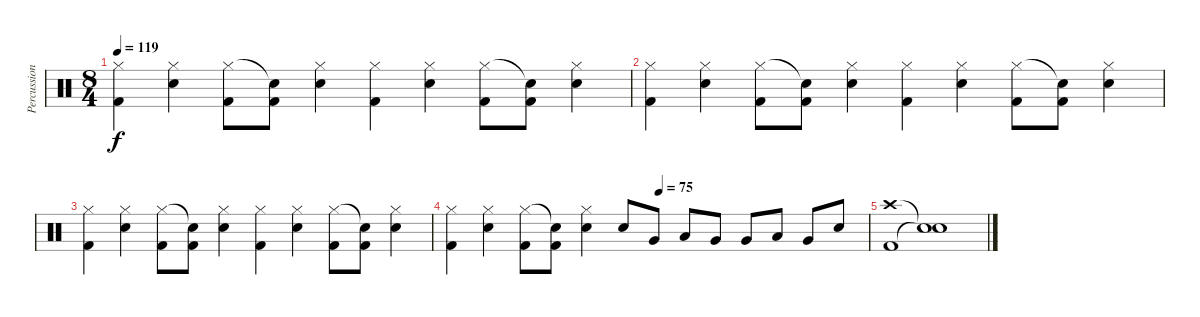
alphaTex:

\track ("Percussion" "Percussion") {instrument percussion}
\staff {score}
\articulation defaults
\ts (8 4)
\tempo 119
\clef neutral
\ks c
("Hi-Hat (closed)" "Kick (hit) 2").4{dy f} ("Hi-Hat (closed)" "Snare (hit) 2").4 ("Hi-Hat (closed)" "Kick (hit) 2").8 ("Snare (hit)"{t} "Kick (hit) 2").8 ("Hi-Hat (closed)" "Snare (hit) 2").4 ("Hi-Hat (closed)" "Kick (hit) 2").4 ("Hi-Hat (closed)" "Snare (hit) 2").4 ("Hi-Hat (closed)" "Kick (hit) 2").8 ("Snare (hit)"{t} "Kick (hit) 2").8 ("Hi-Hat (closed)" "Snare (hit) 2").4 |
("Hi-Hat (closed)" "Kick (hit) 2").4 ("Hi-Hat (closed)" "Snare (hit) 2").4 ("Hi-Hat (closed)" "Kick (hit) 2").8 ("Snare (hit)"{t} "Kick (hit) 2").8 ("Hi-Hat (closed)" "Snare (hit) 2").4 ("Hi-Hat (closed)" "Kick (hit) 2").4 ("Hi-Hat (closed)" "Snare (hit) 2").4 ("Hi-Hat (closed)" "Kick (hit) 2").8 ("Snare (hit)"{t} "Kick (hit) 2").8 ("Hi-Hat (closed)" "Snare (hit) 2").4 |
("Hi-Hat (closed)" "Kick (hit) 2").4 ("Hi-Hat (closed)" "Snare (hit) 2").4 ("Hi-Hat (closed)" "Kick (hit) 2").8 ("Snare (hit)"{t} "Kick (hit) 2").8 ("Hi-Hat (closed)" "Snare (hit) 2").4 ("Hi-Hat (closed)" "Kick (hit) 2").4 ("Hi-Hat (closed)" "Snare (hit) 2").4 ("Hi-Hat (closed)" "Kick (hit) 2").8 ("Snare (hit)"{t} "Kick (hit) 2").8 ("Hi-Hat (closed)" "Snare (hit) 2").4 |
\tempo (75 0.5)
("Hi-Hat (closed)" "Kick (hit) 2").4 ("Hi-Hat (closed)" "Snare (hit) 2").4 ("Hi-Hat (closed)" "Kick (hit) 2").8 ("Snare (hit)"{t} "Kick (hit) 2").8 ("Hi-Hat (closed)" "Snare (hit) 2").4 "Snare (hit) 2".8 "Very Low Tom (hit)".8 "Low Floor Tom (hit)".8 "Very Low Tom (hit)".8 "Very Low Tom (hit)".8 "Low Floor Tom (hit)".8 "Very Low Tom (hit)".8 "Snare (hit) 2".8 |
("Crash high (hit)" "Kick (hit) 2").1 ("Snare (hit)"{t} "Snare (hit)"{t}).1
